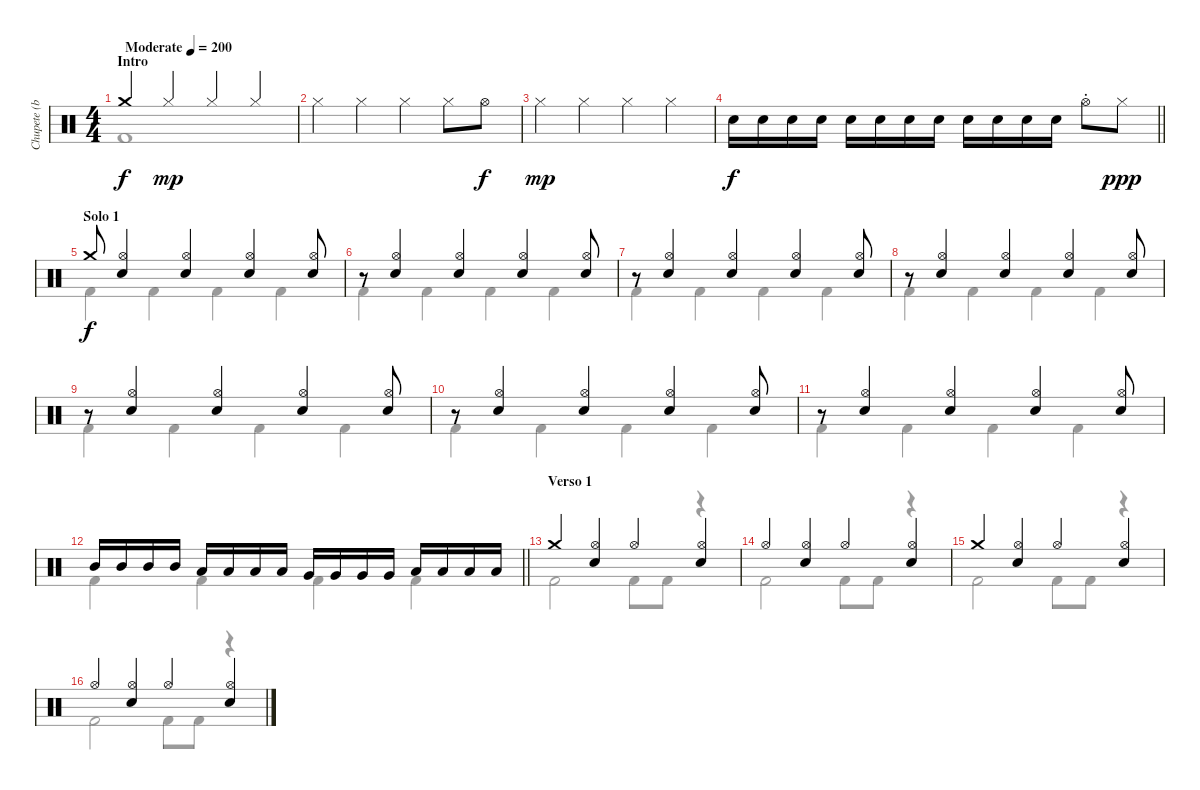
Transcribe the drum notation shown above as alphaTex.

\track ("Chupete (batería)" "Chupete (b") {instrument percussion}
\staff {score}
\articulation defaults
\voice
\ts (4 4)
\section ("" "Intro")
\tempo (200 "Moderate")
\clef neutral
\ks c "Crash medium (hit)".4{dy f} "Hi-Hat (closed)".4{dy mp} "Hi-Hat (closed)".4 "Hi-Hat (closed)".4
|
"Hi-Hat (closed)".4 "Hi-Hat (closed)".4 "Hi-Hat (closed)".4 "Hi-Hat (closed)".8 "Hi-Hat (open)".8{dy f} |
"Hi-Hat (closed)".4{dy mp} "Hi-Hat (closed)".4 "Hi-Hat (closed)".4 "Hi-Hat (closed)".4 |
\barLineRight lightlight "Electric Snare (hit)".16{dy f} "Electric Snare (hit)".16 "Electric Snare (hit)".16 "Electric Snare (hit)".16 "Electric Snare (hit)".16 "Electric Snare (hit)".16 "Electric Snare (hit)".16 "Electric Snare (hit)".16 "Electric Snare (hit)".16 "Electric Snare (hit)".16 "Electric Snare (hit)".16 "Electric Snare (hit)".16 "Hi-Hat (open)"{st}.8 "Hi-Hat (closed)".8{dy ppp}
|
\section ("" "Solo 1")
"Crash medium (hit)".8{dy f} ("Hi-Hat (open)" "Electric Snare (hit)").4 ("Hi-Hat (open)" "Electric Snare (hit)").4 ("Hi-Hat (open)" "Electric Snare (hit)").4 ("Hi-Hat (open)" "Electric Snare (hit)").8 |
r.8 ("Hi-Hat (open)" "Electric Snare (hit)").4 ("Hi-Hat (open)" "Electric Snare (hit)").4 ("Hi-Hat (open)" "Electric Snare (hit)").4 ("Hi-Hat (open)" "Electric Snare (hit)").8 |
r.8 ("Hi-Hat (open)" "Electric Snare (hit)").4 ("Hi-Hat (open)" "Electric Snare (hit)").4 ("Hi-Hat (open)" "Electric Snare (hit)").4 ("Hi-Hat (open)" "Electric Snare (hit)").8 |
r.8 ("Hi-Hat (open)" "Electric Snare (hit)").4 ("Hi-Hat (open)" "Electric Snare (hit)").4 ("Hi-Hat (open)" "Electric Snare (hit)").4 ("Hi-Hat (open)" "Electric Snare (hit)").8 |
r.8 ("Hi-Hat (open)" "Electric Snare (hit)").4 ("Hi-Hat (open)" "Electric Snare (hit)").4 ("Hi-Hat (open)" "Electric Snare (hit)").4 ("Hi-Hat (open)" "Electric Snare (hit)").8 |
r.8 ("Hi-Hat (open)" "Electric Snare (hit)").4 ("Hi-Hat (open)" "Electric Snare (hit)").4 ("Hi-Hat (open)" "Electric Snare (hit)").4 ("Hi-Hat (open)" "Electric Snare (hit)").8 |
r.8 ("Hi-Hat (open)" "Electric Snare (hit)").4 ("Hi-Hat (open)" "Electric Snare (hit)").4 ("Hi-Hat (open)" "Electric Snare (hit)").4 ("Hi-Hat (open)" "Electric Snare (hit)").8 |
\barLineRight lightlight "Mid Tom (hit)".16 "Mid Tom (hit)".16 "Mid Tom (hit)".16 "Mid Tom (hit)".16 "Low Tom (hit)".16 "Low Tom (hit)".16 "Low Tom (hit)".16 "Low Tom (hit)".16 "Very Low Tom (hit)".16 "Very Low Tom (hit)".16 "Very Low Tom (hit)".16 "Very Low Tom (hit)".16 "Low Floor Tom (hit)".16 "Low Floor Tom (hit)".16 "Low Floor Tom (hit)".16 "Low Floor Tom (hit)".16
|
\section ("" "Verso 1")
"Crash medium (hit)".4 ("Hi-Hat (open)" "Electric Snare (hit)").4 "Hi-Hat (open)".4 ("Hi-Hat (open)" "Electric Snare (hit)").4 |
"Hi-Hat (open)".4 ("Hi-Hat (open)" "Electric Snare (hit)").4 "Hi-Hat (open)".4 ("Hi-Hat (open)" "Electric Snare (hit)").4 |
"Crash medium (hit)".4 ("Hi-Hat (open)" "Electric Snare (hit)").4 "Hi-Hat (open)".4 ("Hi-Hat (open)" "Electric Snare (hit)").4 |
"Hi-Hat (open)".4 ("Hi-Hat (open)" "Electric Snare (hit)").4 "Hi-Hat (open)".4 ("Hi-Hat (open)" "Electric Snare (hit)").4
\voice
\clef neutral
\ottava regular
\simile none
\ks c "Kick (hit) 2".1{dy f}
|
|
|
\barLineRight lightlight
|
"Kick (hit) 2".4 "Kick (hit) 2".4 "Kick (hit) 2".4 "Kick (hit) 2".4 |
"Kick (hit) 2".4 "Kick (hit) 2".4 "Kick (hit) 2".4 "Kick (hit) 2".4 |
"Kick (hit) 2".4 "Kick (hit) 2".4 "Kick (hit) 2".4 "Kick (hit) 2".4 |
"Kick (hit) 2".4 "Kick (hit) 2".4 "Kick (hit) 2".4 "Kick (hit) 2".4 |
"Kick (hit) 2".4 "Kick (hit) 2".4 "Kick (hit) 2".4 "Kick (hit) 2".4 |
"Kick (hit) 2".4 "Kick (hit) 2".4 "Kick (hit) 2".4 "Kick (hit) 2".4 |
"Kick (hit) 2".4 "Kick (hit) 2".4 "Kick (hit) 2".4 "Kick (hit) 2".4 |
\barLineRight lightlight "Kick (hit) 2".4 "Kick (hit) 2".4 "Kick (hit) 2".4 "Kick (hit) 2".4
|
"Kick (hit) 2".2 "Kick (hit) 2".8 "Kick (hit) 2".8 r.4 |
"Kick (hit) 2".2 "Kick (hit) 2".8 "Kick (hit) 2".8 r.4 |
"Kick (hit) 2".2 "Kick (hit) 2".8 "Kick (hit) 2".8 r.4 |
"Kick (hit) 2".2 "Kick (hit) 2".8 "Kick (hit) 2".8 r.4
